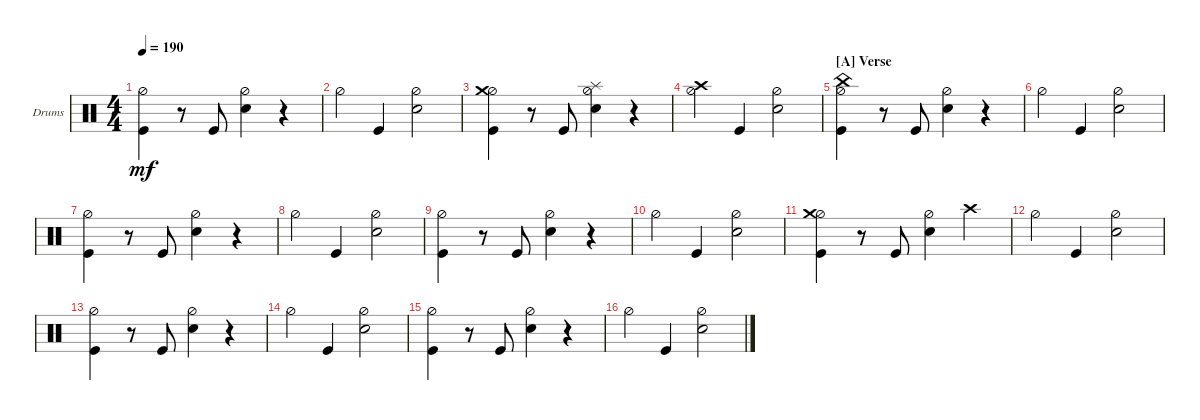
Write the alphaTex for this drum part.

\defaultSystemsLayout 4
\bracketExtendMode groupsimilarinstruments
\firstSystemTrackNameOrientation horizontal
\otherSystemsTrackNameOrientation horizontal
\track ("Drumkit" "Drums") {instrument percussion}
\staff {score}
\articulation defaults
\ts (4 4)
\tempo 190
\clef neutral
\ks c
("Hi-Hat (half)" "Kick (hit)").4{dy mf} r.8 "Kick (hit)".8 ("Hi-Hat (half)" "Snare (hit) 2").4 r.4 |
"Hi-Hat (half)".4 "Kick (hit)".4 ("Snare (hit) 2" "Hi-Hat (half)").2 |
("Hi-Hat (half)" "Kick (hit)" "Crash medium (hit)").4 r.8 "Kick (hit)".8 ("Hi-Hat (half)" "Snare (hit) 2" "Splash (hit)").4 r.4 |
("Hi-Hat (half)" "Crash high (hit)").4 "Kick (hit)".4 ("Snare (hit) 2" "Hi-Hat (half)").2 |
\section ("A" "Verse")
("Hi-Hat (half)" "Kick (hit)" "China (hit)").4 r.8 "Kick (hit)".8 ("Hi-Hat (half)" "Snare (hit) 2").4 r.4 |
"Hi-Hat (half)".4 "Kick (hit)".4 ("Snare (hit) 2" "Hi-Hat (half)").2 |
("Hi-Hat (half)" "Kick (hit)").4 r.8 "Kick (hit)".8 ("Hi-Hat (half)" "Snare (hit) 2").4 r.4 |
"Hi-Hat (half)".4 "Kick (hit)".4 ("Snare (hit) 2" "Hi-Hat (half)").2 |
("Hi-Hat (half)" "Kick (hit)").4 r.8 "Kick (hit)".8 ("Hi-Hat (half)" "Snare (hit) 2").4 r.4 |
"Hi-Hat (half)".4 "Kick (hit)".4 ("Snare (hit) 2" "Hi-Hat (half)").2 |
("Hi-Hat (half)" "Kick (hit)" "Crash medium (hit)").4 r.8 "Kick (hit)".8 ("Hi-Hat (half)" "Snare (hit) 2").4 "Crash high (hit)".4 |
"Hi-Hat (half)".4 "Kick (hit)".4 ("Snare (hit) 2" "Hi-Hat (half)").2 |
("Hi-Hat (half)" "Kick (hit)").4 r.8 "Kick (hit)".8 ("Hi-Hat (half)" "Snare (hit) 2").4 r.4 |
"Hi-Hat (half)".4 "Kick (hit)".4 ("Snare (hit) 2" "Hi-Hat (half)").2 |
("Hi-Hat (half)" "Kick (hit)").4 r.8 "Kick (hit)".8 ("Hi-Hat (half)" "Snare (hit) 2").4 r.4 |
"Hi-Hat (half)".4 "Kick (hit)".4 ("Snare (hit) 2" "Hi-Hat (half)").2
